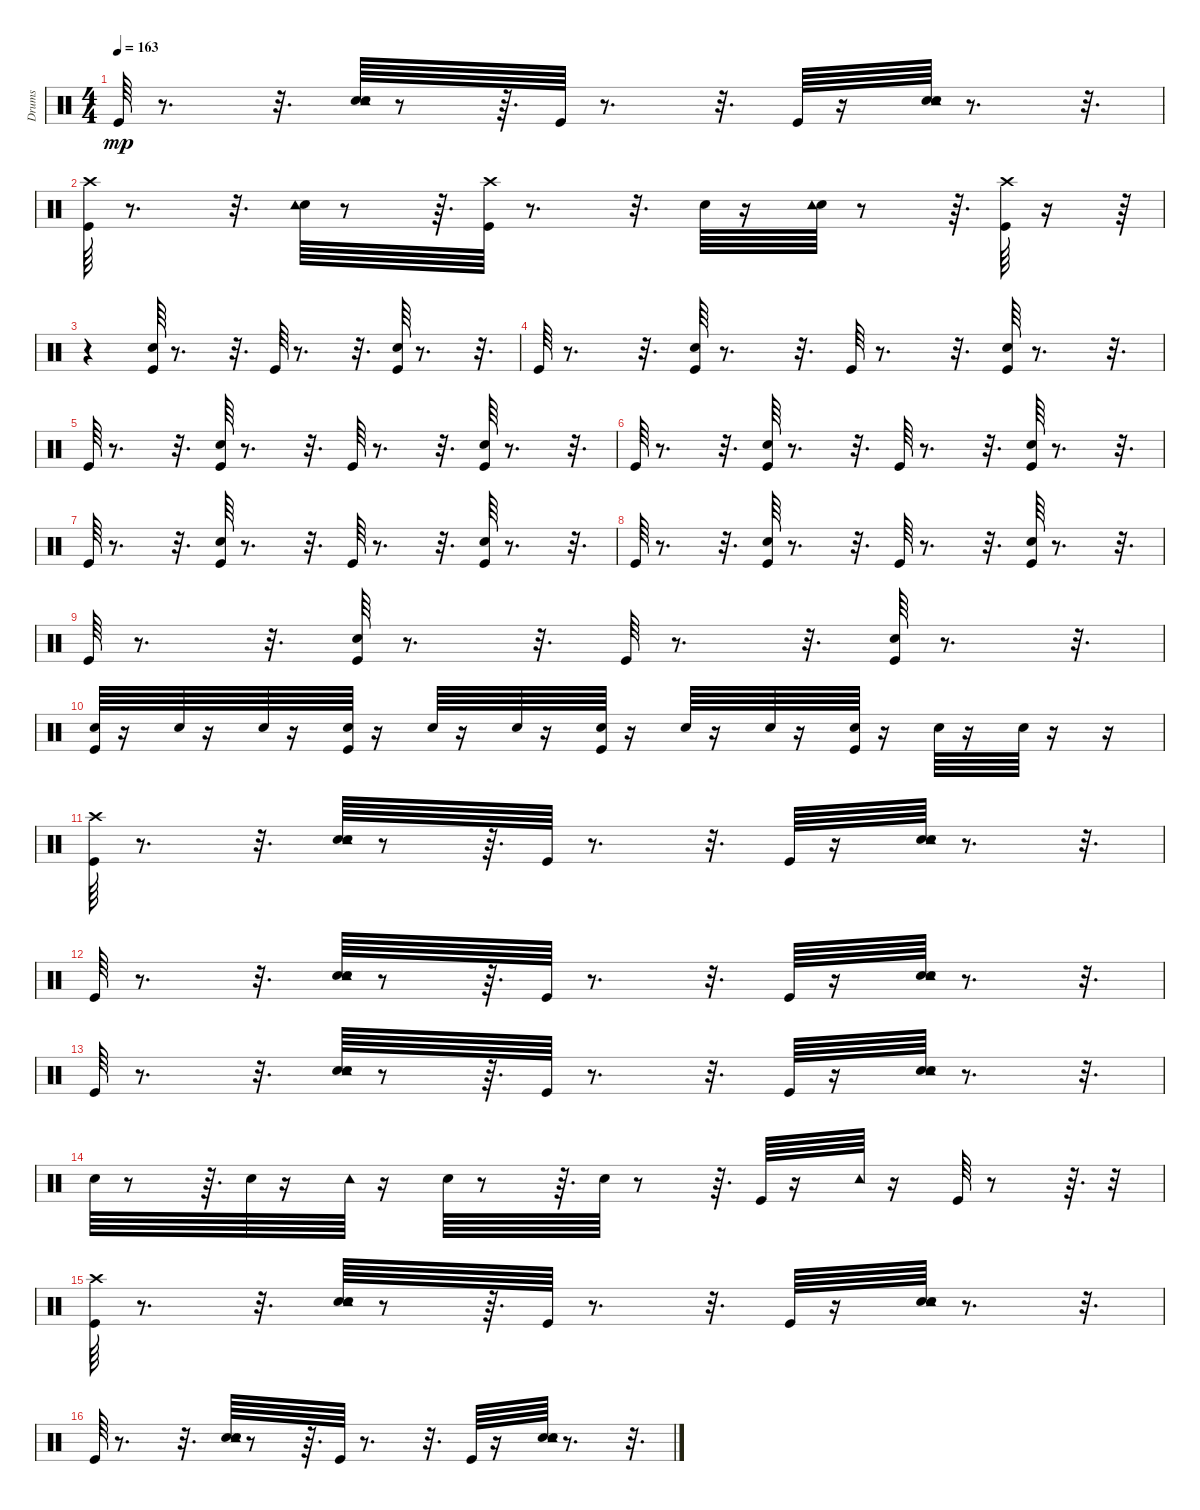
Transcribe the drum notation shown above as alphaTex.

\track ("Drums" "Drums") {instrument percussion}
\staff {score}
\articulation defaults
\ts (4 4)
\tempo 163
\clef neutral
\ks c "Kick (hit)".64{dy mp}
r.8{d} r.32{d} ("Snare (hit) 2" "Tambourine (hit)" "Hand Clap (hit)").64 r.8 r.64{d} "Kick (hit)".64 r.8{d} r.32{d} "Kick (hit)".64 r.16 ("Snare (hit) 2" "Tambourine (hit)" "Hand Clap (hit)").64 r.8{d} r.32{d} |
("Kick (hit)" "Crash high (hit)").64 r.8{d} r.32{d} ("Snare (hit) 2" "Tambourine (hit)").64 r.8 r.64{d} ("Kick (hit)" "Crash high (hit)").64 r.8{d} r.32{d} "Snare (hit) 2".64 r.16 ("Snare (hit) 2" "Tambourine (hit)").64 r.8 r.64{d} ("Kick (hit)" "Crash high (hit)").64 r.16 r.64 |
r.4 ("Kick (hit)" "Hand Clap (hit)").64 r.8{d} r.32{d} "Kick (hit)".64 r.8{d} r.32{d} ("Kick (hit)" "Hand Clap (hit)").64 r.8{d} r.32{d} |
"Kick (hit)".64 r.8{d} r.32{d} ("Kick (hit)" "Hand Clap (hit)").64 r.8{d} r.32{d} "Kick (hit)".64 r.8{d} r.32{d} ("Kick (hit)" "Hand Clap (hit)").64 r.8{d} r.32{d} |
"Kick (hit)".64 r.8{d} r.32{d} ("Kick (hit)" "Hand Clap (hit)").64 r.8{d} r.32{d} "Kick (hit)".64 r.8{d} r.32{d} ("Kick (hit)" "Hand Clap (hit)").64 r.8{d} r.32{d} |
"Kick (hit)".64 r.8{d} r.32{d} ("Kick (hit)" "Hand Clap (hit)").64 r.8{d} r.32{d} "Kick (hit)".64 r.8{d} r.32{d} ("Kick (hit)" "Hand Clap (hit)").64 r.8{d} r.32{d} |
"Kick (hit)".64 r.8{d} r.32{d} ("Kick (hit)" "Hand Clap (hit)").64 r.8{d} r.32{d} "Kick (hit)".64 r.8{d} r.32{d} ("Kick (hit)" "Hand Clap (hit)").64 r.8{d} r.32{d} |
"Kick (hit)".64 r.8{d} r.32{d} ("Kick (hit)" "Hand Clap (hit)").64 r.8{d} r.32{d} "Kick (hit)".64 r.8{d} r.32{d} ("Kick (hit)" "Hand Clap (hit)").64 r.8{d} r.32{d} |
"Kick (hit)".64 r.8{d} r.32{d} ("Kick (hit)" "Hand Clap (hit)").64 r.8{d} r.32{d} "Kick (hit)".64 r.8{d} r.32{d} ("Kick (hit)" "Hand Clap (hit)").64 r.8{d} r.32{d} |
("Kick (hit)" "Snare (hit) 2").64 r.16 "Snare (hit) 2".64 r.16 "Snare (hit) 2".64 r.16 ("Kick (hit)" "Snare (hit) 2").64 r.16 "Snare (hit) 2".64 r.16 "Snare (hit) 2".64 r.16 ("Kick (hit)" "Snare (hit) 2").64 r.16 "Snare (hit) 2".64 r.16 "Snare (hit) 2".64 r.16 ("Kick (hit)" "Snare (hit) 2").64 r.16 "Snare (hit) 2".64 r.16 "Snare (hit) 2".64 r.16 r.16 |
("Kick (hit)" "Crash high (hit)").64 r.8{d} r.32{d} ("Snare (hit) 2" "Tambourine (hit)" "Hand Clap (hit)").64 r.8 r.64{d} "Kick (hit)".64 r.8{d} r.32{d} "Kick (hit)".64 r.16 ("Snare (hit) 2" "Tambourine (hit)" "Hand Clap (hit)").64 r.8{d} r.32{d} |
"Kick (hit)".64 r.8{d} r.32{d} ("Snare (hit) 2" "Tambourine (hit)" "Hand Clap (hit)").64 r.8 r.64{d} "Kick (hit)".64 r.8{d} r.32{d} "Kick (hit)".64 r.16 ("Snare (hit) 2" "Tambourine (hit)" "Hand Clap (hit)").64 r.8{d} r.32{d} |
"Kick (hit)".64 r.8{d} r.32{d} ("Snare (hit) 2" "Tambourine (hit)" "Hand Clap (hit)").64 r.8 r.64{d} "Kick (hit)".64 r.8{d} r.32{d} "Kick (hit)".64 r.16 ("Snare (hit) 2" "Tambourine (hit)" "Hand Clap (hit)").64 r.8{d} r.32{d} |
"Snare (hit) 2".64 r.8 r.64{d} "Snare (hit) 2".64 r.16 "Tambourine (hit)".64 r.16 "Snare (hit) 2".64 r.8 r.64{d} "Snare (hit) 2".64 r.8 r.64{d} "Kick (hit)".64 r.16 "Tambourine (hit)".64 r.16 "Kick (hit)".64 r.8 r.64{d} r.32 |
("Kick (hit)" "Crash high (hit)").64 r.8{d} r.32{d} ("Snare (hit) 2" "Tambourine (hit)" "Hand Clap (hit)").64 r.8 r.64{d} "Kick (hit)".64 r.8{d} r.32{d} "Kick (hit)".64 r.16 ("Snare (hit) 2" "Tambourine (hit)" "Hand Clap (hit)").64 r.8{d} r.32{d} |
"Kick (hit)".64 r.8{d} r.32{d} ("Snare (hit) 2" "Tambourine (hit)" "Hand Clap (hit)").64 r.8 r.64{d} "Kick (hit)".64 r.8{d} r.32{d} "Kick (hit)".64 r.16 ("Snare (hit) 2" "Tambourine (hit)" "Hand Clap (hit)").64 r.8{d} r.32{d}
